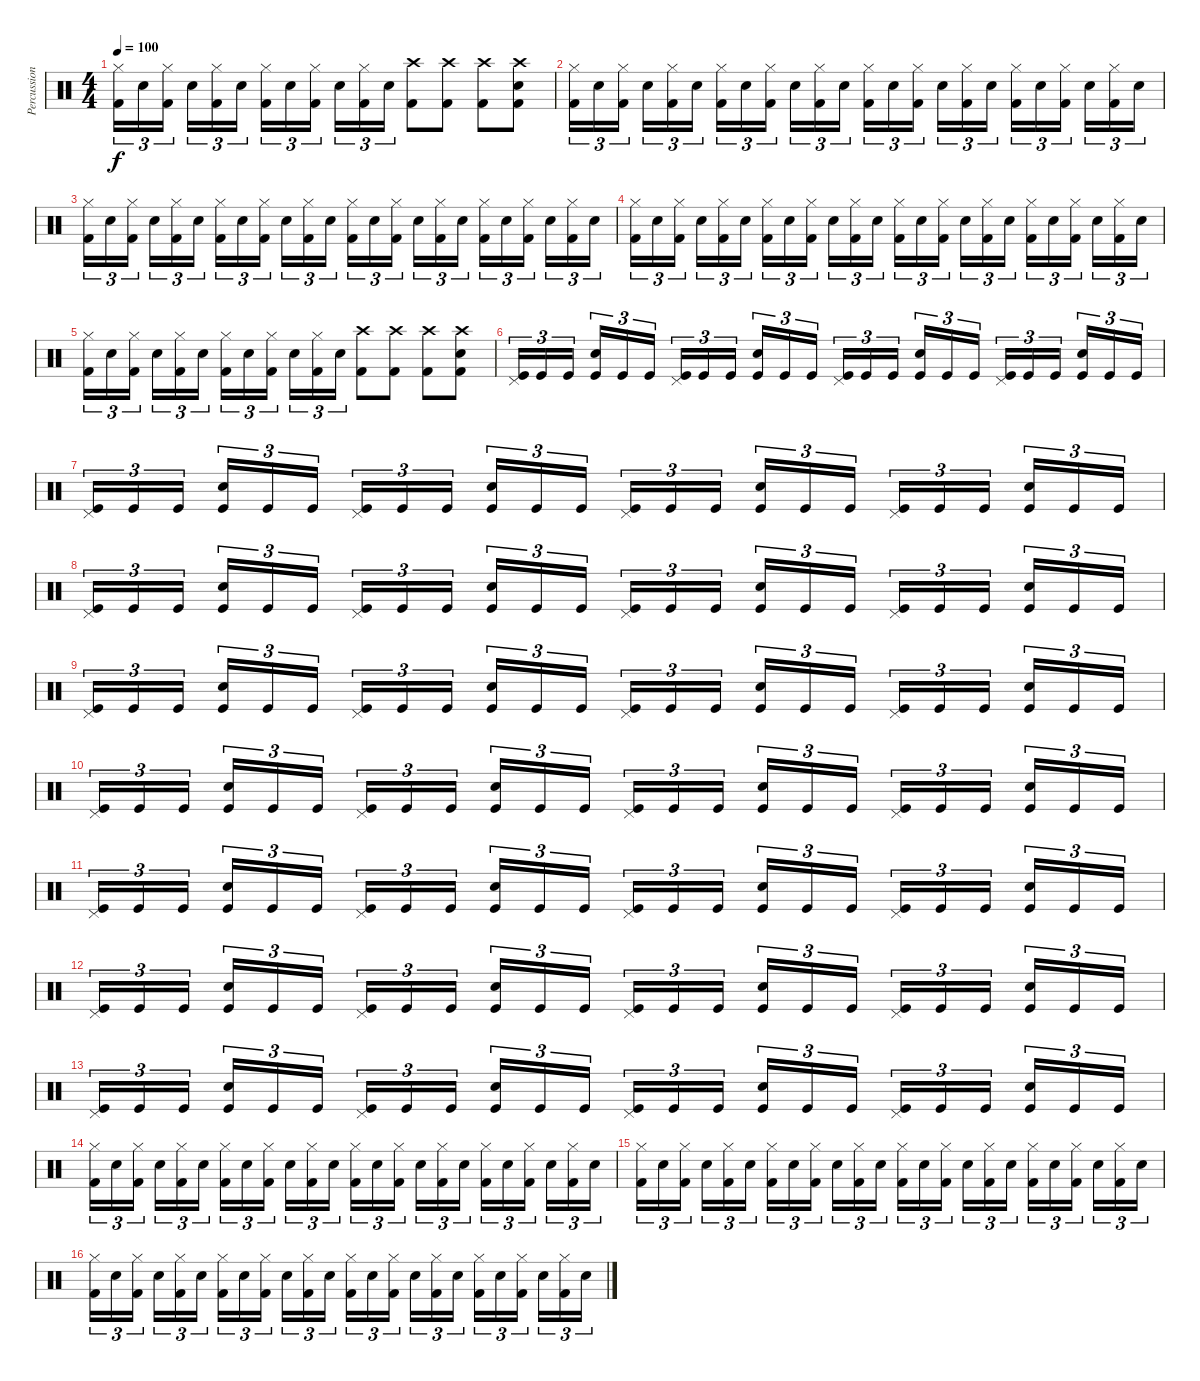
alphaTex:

\track ("Percussion" "Percussion") {instrument percussion}
\staff {score}
\articulation defaults
\ts (4 4)
\tempo 100
\clef neutral
\ks c
("Hi-Hat (closed)" "Kick (hit) 2").16{tu (3 2) dy f} "Snare (hit) 2".16{tu (3 2)} ("Hi-Hat (closed)" "Kick (hit) 2").16{tu (3 2) beam splitsecondary} "Snare (hit) 2".16{tu (3 2)} ("Hi-Hat (closed)" "Kick (hit) 2").16{tu (3 2)} "Snare (hit) 2".16{tu (3 2)} ("Hi-Hat (closed)" "Kick (hit) 2").16{tu (3 2)} "Snare (hit) 2".16{tu (3 2)} ("Hi-Hat (closed)" "Kick (hit) 2").16{tu (3 2) beam splitsecondary} "Snare (hit) 2".16{tu (3 2)} ("Hi-Hat (closed)" "Kick (hit) 2").16{tu (3 2)} "Snare (hit) 2".16{tu (3 2)} ("Crash high (hit)" "Kick (hit) 2").8 ("Crash high (hit)" "Kick (hit) 2").8 ("Crash high (hit)" "Kick (hit) 2").8 ("Crash high (hit)" "Snare (hit) 2" "Kick (hit) 2").8 |
("Hi-Hat (closed)" "Kick (hit) 2").16{tu (3 2)} "Snare (hit) 2".16{tu (3 2)} ("Hi-Hat (closed)" "Kick (hit) 2").16{tu (3 2) beam splitsecondary} "Snare (hit) 2".16{tu (3 2)} ("Hi-Hat (closed)" "Kick (hit) 2").16{tu (3 2)} "Snare (hit) 2".16{tu (3 2)} ("Hi-Hat (closed)" "Kick (hit) 2").16{tu (3 2)} "Snare (hit) 2".16{tu (3 2)} ("Hi-Hat (closed)" "Kick (hit) 2").16{tu (3 2) beam splitsecondary} "Snare (hit) 2".16{tu (3 2)} ("Hi-Hat (closed)" "Kick (hit) 2").16{tu (3 2)} "Snare (hit) 2".16{tu (3 2)} ("Hi-Hat (closed)" "Kick (hit) 2").16{tu (3 2)} "Snare (hit) 2".16{tu (3 2)} ("Hi-Hat (closed)" "Kick (hit) 2").16{tu (3 2) beam splitsecondary} "Snare (hit) 2".16{tu (3 2)} ("Hi-Hat (closed)" "Kick (hit) 2").16{tu (3 2)} "Snare (hit) 2".16{tu (3 2)} ("Hi-Hat (closed)" "Kick (hit) 2").16{tu (3 2)} "Snare (hit) 2".16{tu (3 2)} ("Hi-Hat (closed)" "Kick (hit) 2").16{tu (3 2) beam splitsecondary} "Snare (hit) 2".16{tu (3 2)} ("Hi-Hat (closed)" "Kick (hit) 2").16{tu (3 2)} "Snare (hit) 2".16{tu (3 2)} |
("Hi-Hat (closed)" "Kick (hit) 2").16{tu (3 2)} "Snare (hit) 2".16{tu (3 2)} ("Hi-Hat (closed)" "Kick (hit) 2").16{tu (3 2) beam splitsecondary} "Snare (hit) 2".16{tu (3 2)} ("Hi-Hat (closed)" "Kick (hit) 2").16{tu (3 2)} "Snare (hit) 2".16{tu (3 2)} ("Hi-Hat (closed)" "Kick (hit) 2").16{tu (3 2)} "Snare (hit) 2".16{tu (3 2)} ("Hi-Hat (closed)" "Kick (hit) 2").16{tu (3 2) beam splitsecondary} "Snare (hit) 2".16{tu (3 2)} ("Hi-Hat (closed)" "Kick (hit) 2").16{tu (3 2)} "Snare (hit) 2".16{tu (3 2)} ("Hi-Hat (closed)" "Kick (hit) 2").16{tu (3 2)} "Snare (hit) 2".16{tu (3 2)} ("Hi-Hat (closed)" "Kick (hit) 2").16{tu (3 2) beam splitsecondary} "Snare (hit) 2".16{tu (3 2)} ("Hi-Hat (closed)" "Kick (hit) 2").16{tu (3 2)} "Snare (hit) 2".16{tu (3 2)} ("Hi-Hat (closed)" "Kick (hit) 2").16{tu (3 2)} "Snare (hit) 2".16{tu (3 2)} ("Hi-Hat (closed)" "Kick (hit) 2").16{tu (3 2) beam splitsecondary} "Snare (hit) 2".16{tu (3 2)} ("Hi-Hat (closed)" "Kick (hit) 2").16{tu (3 2)} "Snare (hit) 2".16{tu (3 2)} |
("Hi-Hat (closed)" "Kick (hit) 2").16{tu (3 2)} "Snare (hit) 2".16{tu (3 2)} ("Hi-Hat (closed)" "Kick (hit) 2").16{tu (3 2) beam splitsecondary} "Snare (hit) 2".16{tu (3 2)} ("Hi-Hat (closed)" "Kick (hit) 2").16{tu (3 2)} "Snare (hit) 2".16{tu (3 2)} ("Hi-Hat (closed)" "Kick (hit) 2").16{tu (3 2)} "Snare (hit) 2".16{tu (3 2)} ("Hi-Hat (closed)" "Kick (hit) 2").16{tu (3 2) beam splitsecondary} "Snare (hit) 2".16{tu (3 2)} ("Hi-Hat (closed)" "Kick (hit) 2").16{tu (3 2)} "Snare (hit) 2".16{tu (3 2)} ("Hi-Hat (closed)" "Kick (hit) 2").16{tu (3 2)} "Snare (hit) 2".16{tu (3 2)} ("Hi-Hat (closed)" "Kick (hit) 2").16{tu (3 2) beam splitsecondary} "Snare (hit) 2".16{tu (3 2)} ("Hi-Hat (closed)" "Kick (hit) 2").16{tu (3 2)} "Snare (hit) 2".16{tu (3 2)} ("Hi-Hat (closed)" "Kick (hit) 2").16{tu (3 2)} "Snare (hit) 2".16{tu (3 2)} ("Hi-Hat (closed)" "Kick (hit) 2").16{tu (3 2) beam splitsecondary} "Snare (hit) 2".16{tu (3 2)} ("Hi-Hat (closed)" "Kick (hit) 2").16{tu (3 2)} "Snare (hit) 2".16{tu (3 2)} |
("Hi-Hat (closed)" "Kick (hit) 2").16{tu (3 2)} "Snare (hit) 2".16{tu (3 2)} ("Hi-Hat (closed)" "Kick (hit) 2").16{tu (3 2) beam splitsecondary} "Snare (hit) 2".16{tu (3 2)} ("Hi-Hat (closed)" "Kick (hit) 2").16{tu (3 2)} "Snare (hit) 2".16{tu (3 2)} ("Hi-Hat (closed)" "Kick (hit) 2").16{tu (3 2)} "Snare (hit) 2".16{tu (3 2)} ("Hi-Hat (closed)" "Kick (hit) 2").16{tu (3 2) beam splitsecondary} "Snare (hit) 2".16{tu (3 2)} ("Hi-Hat (closed)" "Kick (hit) 2").16{tu (3 2)} "Snare (hit) 2".16{tu (3 2)} ("Crash high (hit)" "Kick (hit) 2").8 ("Crash high (hit)" "Kick (hit) 2").8 ("Crash high (hit)" "Kick (hit) 2").8 ("Crash high (hit)" "Snare (hit) 2" "Kick (hit) 2").8 |
("Pedal Hi-Hat (hit)" "Kick (hit)").16{tu (3 2)} "Kick (hit)".16{tu (3 2)} "Kick (hit)".16{tu (3 2) beam splitsecondary} ("Snare (hit) 2" "Kick (hit)").16{tu (3 2)} "Kick (hit)".16{tu (3 2)} "Kick (hit)".16{tu (3 2)} ("Pedal Hi-Hat (hit)" "Kick (hit)").16{tu (3 2)} "Kick (hit)".16{tu (3 2)} "Kick (hit)".16{tu (3 2) beam splitsecondary} ("Snare (hit) 2" "Kick (hit)").16{tu (3 2)} "Kick (hit)".16{tu (3 2)} "Kick (hit)".16{tu (3 2)} ("Pedal Hi-Hat (hit)" "Kick (hit)").16{tu (3 2)} "Kick (hit)".16{tu (3 2)} "Kick (hit)".16{tu (3 2) beam splitsecondary} ("Snare (hit) 2" "Kick (hit)").16{tu (3 2)} "Kick (hit)".16{tu (3 2)} "Kick (hit)".16{tu (3 2)} ("Pedal Hi-Hat (hit)" "Kick (hit)").16{tu (3 2)} "Kick (hit)".16{tu (3 2)} "Kick (hit)".16{tu (3 2) beam splitsecondary} ("Snare (hit) 2" "Kick (hit)").16{tu (3 2)} "Kick (hit)".16{tu (3 2)} "Kick (hit)".16{tu (3 2)} |
("Pedal Hi-Hat (hit)" "Kick (hit)").16{tu (3 2)} "Kick (hit)".16{tu (3 2)} "Kick (hit)".16{tu (3 2) beam splitsecondary} ("Snare (hit) 2" "Kick (hit)").16{tu (3 2)} "Kick (hit)".16{tu (3 2)} "Kick (hit)".16{tu (3 2)} ("Pedal Hi-Hat (hit)" "Kick (hit)").16{tu (3 2)} "Kick (hit)".16{tu (3 2)} "Kick (hit)".16{tu (3 2) beam splitsecondary} ("Snare (hit) 2" "Kick (hit)").16{tu (3 2)} "Kick (hit)".16{tu (3 2)} "Kick (hit)".16{tu (3 2)} ("Pedal Hi-Hat (hit)" "Kick (hit)").16{tu (3 2)} "Kick (hit)".16{tu (3 2)} "Kick (hit)".16{tu (3 2) beam splitsecondary} ("Snare (hit) 2" "Kick (hit)").16{tu (3 2)} "Kick (hit)".16{tu (3 2)} "Kick (hit)".16{tu (3 2)} ("Pedal Hi-Hat (hit)" "Kick (hit)").16{tu (3 2)} "Kick (hit)".16{tu (3 2)} "Kick (hit)".16{tu (3 2) beam splitsecondary} ("Snare (hit) 2" "Kick (hit)").16{tu (3 2)} "Kick (hit)".16{tu (3 2)} "Kick (hit)".16{tu (3 2)} |
("Pedal Hi-Hat (hit)" "Kick (hit)").16{tu (3 2)} "Kick (hit)".16{tu (3 2)} "Kick (hit)".16{tu (3 2) beam splitsecondary} ("Snare (hit) 2" "Kick (hit)").16{tu (3 2)} "Kick (hit)".16{tu (3 2)} "Kick (hit)".16{tu (3 2)} ("Pedal Hi-Hat (hit)" "Kick (hit)").16{tu (3 2)} "Kick (hit)".16{tu (3 2)} "Kick (hit)".16{tu (3 2) beam splitsecondary} ("Snare (hit) 2" "Kick (hit)").16{tu (3 2)} "Kick (hit)".16{tu (3 2)} "Kick (hit)".16{tu (3 2)} ("Pedal Hi-Hat (hit)" "Kick (hit)").16{tu (3 2)} "Kick (hit)".16{tu (3 2)} "Kick (hit)".16{tu (3 2) beam splitsecondary} ("Snare (hit) 2" "Kick (hit)").16{tu (3 2)} "Kick (hit)".16{tu (3 2)} "Kick (hit)".16{tu (3 2)} ("Pedal Hi-Hat (hit)" "Kick (hit)").16{tu (3 2)} "Kick (hit)".16{tu (3 2)} "Kick (hit)".16{tu (3 2) beam splitsecondary} ("Snare (hit) 2" "Kick (hit)").16{tu (3 2)} "Kick (hit)".16{tu (3 2)} "Kick (hit)".16{tu (3 2)} |
("Pedal Hi-Hat (hit)" "Kick (hit)").16{tu (3 2)} "Kick (hit)".16{tu (3 2)} "Kick (hit)".16{tu (3 2) beam splitsecondary} ("Snare (hit) 2" "Kick (hit)").16{tu (3 2)} "Kick (hit)".16{tu (3 2)} "Kick (hit)".16{tu (3 2)} ("Pedal Hi-Hat (hit)" "Kick (hit)").16{tu (3 2)} "Kick (hit)".16{tu (3 2)} "Kick (hit)".16{tu (3 2) beam splitsecondary} ("Snare (hit) 2" "Kick (hit)").16{tu (3 2)} "Kick (hit)".16{tu (3 2)} "Kick (hit)".16{tu (3 2)} ("Pedal Hi-Hat (hit)" "Kick (hit)").16{tu (3 2)} "Kick (hit)".16{tu (3 2)} "Kick (hit)".16{tu (3 2) beam splitsecondary} ("Snare (hit) 2" "Kick (hit)").16{tu (3 2)} "Kick (hit)".16{tu (3 2)} "Kick (hit)".16{tu (3 2)} ("Pedal Hi-Hat (hit)" "Kick (hit)").16{tu (3 2)} "Kick (hit)".16{tu (3 2)} "Kick (hit)".16{tu (3 2) beam splitsecondary} ("Snare (hit) 2" "Kick (hit)").16{tu (3 2)} "Kick (hit)".16{tu (3 2)} "Kick (hit)".16{tu (3 2)} |
("Pedal Hi-Hat (hit)" "Kick (hit)").16{tu (3 2)} "Kick (hit)".16{tu (3 2)} "Kick (hit)".16{tu (3 2) beam splitsecondary} ("Snare (hit) 2" "Kick (hit)").16{tu (3 2)} "Kick (hit)".16{tu (3 2)} "Kick (hit)".16{tu (3 2)} ("Pedal Hi-Hat (hit)" "Kick (hit)").16{tu (3 2)} "Kick (hit)".16{tu (3 2)} "Kick (hit)".16{tu (3 2) beam splitsecondary} ("Snare (hit) 2" "Kick (hit)").16{tu (3 2)} "Kick (hit)".16{tu (3 2)} "Kick (hit)".16{tu (3 2)} ("Pedal Hi-Hat (hit)" "Kick (hit)").16{tu (3 2)} "Kick (hit)".16{tu (3 2)} "Kick (hit)".16{tu (3 2) beam splitsecondary} ("Snare (hit) 2" "Kick (hit)").16{tu (3 2)} "Kick (hit)".16{tu (3 2)} "Kick (hit)".16{tu (3 2)} ("Pedal Hi-Hat (hit)" "Kick (hit)").16{tu (3 2)} "Kick (hit)".16{tu (3 2)} "Kick (hit)".16{tu (3 2) beam splitsecondary} ("Snare (hit) 2" "Kick (hit)").16{tu (3 2)} "Kick (hit)".16{tu (3 2)} "Kick (hit)".16{tu (3 2)} |
("Pedal Hi-Hat (hit)" "Kick (hit)").16{tu (3 2)} "Kick (hit)".16{tu (3 2)} "Kick (hit)".16{tu (3 2) beam splitsecondary} ("Snare (hit) 2" "Kick (hit)").16{tu (3 2)} "Kick (hit)".16{tu (3 2)} "Kick (hit)".16{tu (3 2)} ("Pedal Hi-Hat (hit)" "Kick (hit)").16{tu (3 2)} "Kick (hit)".16{tu (3 2)} "Kick (hit)".16{tu (3 2) beam splitsecondary} ("Snare (hit) 2" "Kick (hit)").16{tu (3 2)} "Kick (hit)".16{tu (3 2)} "Kick (hit)".16{tu (3 2)} ("Pedal Hi-Hat (hit)" "Kick (hit)").16{tu (3 2)} "Kick (hit)".16{tu (3 2)} "Kick (hit)".16{tu (3 2) beam splitsecondary} ("Snare (hit) 2" "Kick (hit)").16{tu (3 2)} "Kick (hit)".16{tu (3 2)} "Kick (hit)".16{tu (3 2)} ("Pedal Hi-Hat (hit)" "Kick (hit)").16{tu (3 2)} "Kick (hit)".16{tu (3 2)} "Kick (hit)".16{tu (3 2) beam splitsecondary} ("Snare (hit) 2" "Kick (hit)").16{tu (3 2)} "Kick (hit)".16{tu (3 2)} "Kick (hit)".16{tu (3 2)} |
("Pedal Hi-Hat (hit)" "Kick (hit)").16{tu (3 2)} "Kick (hit)".16{tu (3 2)} "Kick (hit)".16{tu (3 2) beam splitsecondary} ("Snare (hit) 2" "Kick (hit)").16{tu (3 2)} "Kick (hit)".16{tu (3 2)} "Kick (hit)".16{tu (3 2)} ("Pedal Hi-Hat (hit)" "Kick (hit)").16{tu (3 2)} "Kick (hit)".16{tu (3 2)} "Kick (hit)".16{tu (3 2) beam splitsecondary} ("Snare (hit) 2" "Kick (hit)").16{tu (3 2)} "Kick (hit)".16{tu (3 2)} "Kick (hit)".16{tu (3 2)} ("Pedal Hi-Hat (hit)" "Kick (hit)").16{tu (3 2)} "Kick (hit)".16{tu (3 2)} "Kick (hit)".16{tu (3 2) beam splitsecondary} ("Snare (hit) 2" "Kick (hit)").16{tu (3 2)} "Kick (hit)".16{tu (3 2)} "Kick (hit)".16{tu (3 2)} ("Pedal Hi-Hat (hit)" "Kick (hit)").16{tu (3 2)} "Kick (hit)".16{tu (3 2)} "Kick (hit)".16{tu (3 2) beam splitsecondary} ("Snare (hit) 2" "Kick (hit)").16{tu (3 2)} "Kick (hit)".16{tu (3 2)} "Kick (hit)".16{tu (3 2)} |
("Pedal Hi-Hat (hit)" "Kick (hit)").16{tu (3 2)} "Kick (hit)".16{tu (3 2)} "Kick (hit)".16{tu (3 2) beam splitsecondary} ("Snare (hit) 2" "Kick (hit)").16{tu (3 2)} "Kick (hit)".16{tu (3 2)} "Kick (hit)".16{tu (3 2)} ("Pedal Hi-Hat (hit)" "Kick (hit)").16{tu (3 2)} "Kick (hit)".16{tu (3 2)} "Kick (hit)".16{tu (3 2) beam splitsecondary} ("Snare (hit) 2" "Kick (hit)").16{tu (3 2)} "Kick (hit)".16{tu (3 2)} "Kick (hit)".16{tu (3 2)} ("Pedal Hi-Hat (hit)" "Kick (hit)").16{tu (3 2)} "Kick (hit)".16{tu (3 2)} "Kick (hit)".16{tu (3 2) beam splitsecondary} ("Snare (hit) 2" "Kick (hit)").16{tu (3 2)} "Kick (hit)".16{tu (3 2)} "Kick (hit)".16{tu (3 2)} ("Pedal Hi-Hat (hit)" "Kick (hit)").16{tu (3 2)} "Kick (hit)".16{tu (3 2)} "Kick (hit)".16{tu (3 2) beam splitsecondary} ("Snare (hit) 2" "Kick (hit)").16{tu (3 2)} "Kick (hit)".16{tu (3 2)} "Kick (hit)".16{tu (3 2)} |
("Hi-Hat (closed)" "Kick (hit) 2").16{tu (3 2)} "Snare (hit) 2".16{tu (3 2)} ("Hi-Hat (closed)" "Kick (hit) 2").16{tu (3 2) beam splitsecondary} "Snare (hit) 2".16{tu (3 2)} ("Hi-Hat (closed)" "Kick (hit) 2").16{tu (3 2)} "Snare (hit) 2".16{tu (3 2)} ("Hi-Hat (closed)" "Kick (hit) 2").16{tu (3 2)} "Snare (hit) 2".16{tu (3 2)} ("Hi-Hat (closed)" "Kick (hit) 2").16{tu (3 2) beam splitsecondary} "Snare (hit) 2".16{tu (3 2)} ("Hi-Hat (closed)" "Kick (hit) 2").16{tu (3 2)} "Snare (hit) 2".16{tu (3 2)} ("Hi-Hat (closed)" "Kick (hit) 2").16{tu (3 2)} "Snare (hit) 2".16{tu (3 2)} ("Hi-Hat (closed)" "Kick (hit) 2").16{tu (3 2) beam splitsecondary} "Snare (hit) 2".16{tu (3 2)} ("Hi-Hat (closed)" "Kick (hit) 2").16{tu (3 2)} "Snare (hit) 2".16{tu (3 2)} ("Hi-Hat (closed)" "Kick (hit) 2").16{tu (3 2)} "Snare (hit) 2".16{tu (3 2)} ("Hi-Hat (closed)" "Kick (hit) 2").16{tu (3 2) beam splitsecondary} "Snare (hit) 2".16{tu (3 2)} ("Hi-Hat (closed)" "Kick (hit) 2").16{tu (3 2)} "Snare (hit) 2".16{tu (3 2)} |
("Hi-Hat (closed)" "Kick (hit) 2").16{tu (3 2)} "Snare (hit) 2".16{tu (3 2)} ("Hi-Hat (closed)" "Kick (hit) 2").16{tu (3 2) beam splitsecondary} "Snare (hit) 2".16{tu (3 2)} ("Hi-Hat (closed)" "Kick (hit) 2").16{tu (3 2)} "Snare (hit) 2".16{tu (3 2)} ("Hi-Hat (closed)" "Kick (hit) 2").16{tu (3 2)} "Snare (hit) 2".16{tu (3 2)} ("Hi-Hat (closed)" "Kick (hit) 2").16{tu (3 2) beam splitsecondary} "Snare (hit) 2".16{tu (3 2)} ("Hi-Hat (closed)" "Kick (hit) 2").16{tu (3 2)} "Snare (hit) 2".16{tu (3 2)} ("Hi-Hat (closed)" "Kick (hit) 2").16{tu (3 2)} "Snare (hit) 2".16{tu (3 2)} ("Hi-Hat (closed)" "Kick (hit) 2").16{tu (3 2) beam splitsecondary} "Snare (hit) 2".16{tu (3 2)} ("Hi-Hat (closed)" "Kick (hit) 2").16{tu (3 2)} "Snare (hit) 2".16{tu (3 2)} ("Hi-Hat (closed)" "Kick (hit) 2").16{tu (3 2)} "Snare (hit) 2".16{tu (3 2)} ("Hi-Hat (closed)" "Kick (hit) 2").16{tu (3 2) beam splitsecondary} "Snare (hit) 2".16{tu (3 2)} ("Hi-Hat (closed)" "Kick (hit) 2").16{tu (3 2)} "Snare (hit) 2".16{tu (3 2)} |
("Hi-Hat (closed)" "Kick (hit) 2").16{tu (3 2)} "Snare (hit) 2".16{tu (3 2)} ("Hi-Hat (closed)" "Kick (hit) 2").16{tu (3 2) beam splitsecondary} "Snare (hit) 2".16{tu (3 2)} ("Hi-Hat (closed)" "Kick (hit) 2").16{tu (3 2)} "Snare (hit) 2".16{tu (3 2)} ("Hi-Hat (closed)" "Kick (hit) 2").16{tu (3 2)} "Snare (hit) 2".16{tu (3 2)} ("Hi-Hat (closed)" "Kick (hit) 2").16{tu (3 2) beam splitsecondary} "Snare (hit) 2".16{tu (3 2)} ("Hi-Hat (closed)" "Kick (hit) 2").16{tu (3 2)} "Snare (hit) 2".16{tu (3 2)} ("Hi-Hat (closed)" "Kick (hit) 2").16{tu (3 2)} "Snare (hit) 2".16{tu (3 2)} ("Hi-Hat (closed)" "Kick (hit) 2").16{tu (3 2) beam splitsecondary} "Snare (hit) 2".16{tu (3 2)} ("Hi-Hat (closed)" "Kick (hit) 2").16{tu (3 2)} "Snare (hit) 2".16{tu (3 2)} ("Hi-Hat (closed)" "Kick (hit) 2").16{tu (3 2)} "Snare (hit) 2".16{tu (3 2)} ("Hi-Hat (closed)" "Kick (hit) 2").16{tu (3 2) beam splitsecondary} "Snare (hit) 2".16{tu (3 2)} ("Hi-Hat (closed)" "Kick (hit) 2").16{tu (3 2)} "Snare (hit) 2".16{tu (3 2)}
